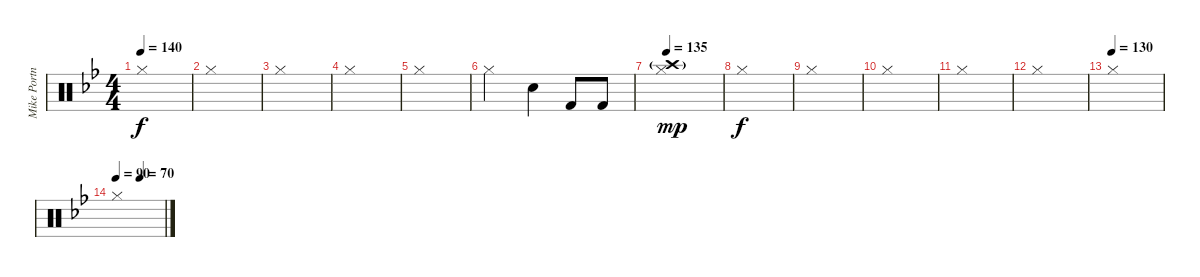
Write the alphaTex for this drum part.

\track ("Mike Portnoy - Drums" "Mike Portn") {instrument percussion}
\staff {score}
\articulation defaults
\ts (4 4)
\tempo 140
\clef neutral
\ks bb "Hi-Hat (closed)".1{dy f}
|
"Hi-Hat (closed)".1 |
"Hi-Hat (closed)".1 |
"Hi-Hat (closed)".1 |
"Hi-Hat (closed)".1 |
"Hi-Hat (closed)".2 "Snare (hit) 2".4 "Kick (hit) 2".8 "Kick (hit) 2".8 |
\tempo 135
("Crash high (hit)"{g} "Hi-Hat (closed)").1{dy mp} |
"Hi-Hat (closed)".1{dy f} |
"Hi-Hat (closed)".1 |
"Hi-Hat (closed)".1 |
"Hi-Hat (closed)".1 |
"Hi-Hat (closed)".1 |
\tempo (130)
"Hi-Hat (closed)".1 |
\tempo 90
\tempo (70 0.5)
"Hi-Hat (closed)".1
